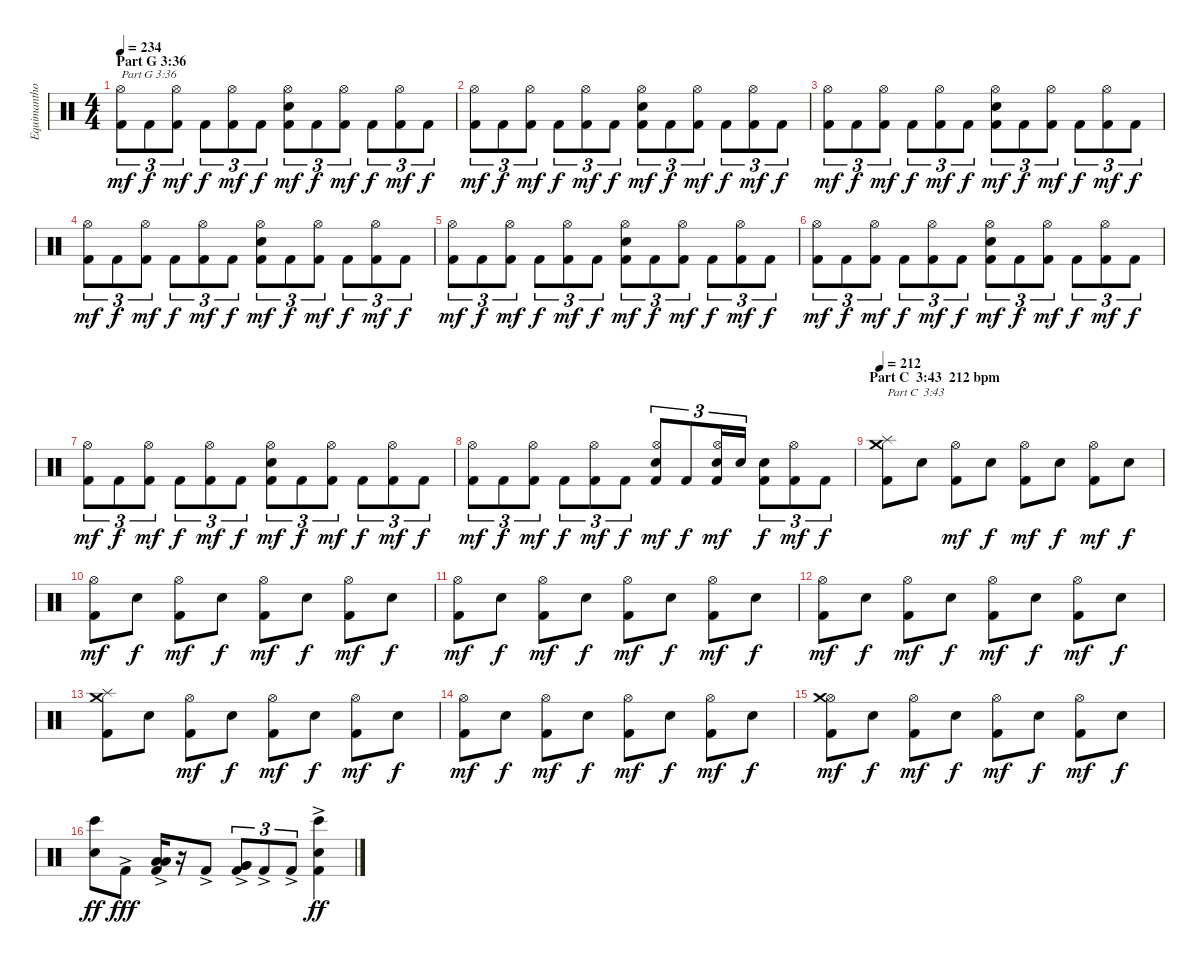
\track ("Equimanthorn" "Equimantho") {instrument percussion}
\staff {score}
\articulation defaults
\ts (4 4)
\section ("" "Part G 3:36")
\tempo 234
\clef neutral
\ks c
("Kick (hit) 2" "Hi-Hat (open)").8{tu (3 2) txt "Part G 3:36" dy mf} "Kick (hit) 2".8{tu (3 2) dy f} ("Kick (hit) 2" "Hi-Hat (open)").8{tu (3 2) dy mf} "Kick (hit) 2".8{tu (3 2) dy f} ("Kick (hit) 2" "Hi-Hat (open)").8{tu (3 2) dy mf} "Kick (hit) 2".8{tu (3 2) dy f} ("Kick (hit) 2" "Electric Snare (hit)" "Hi-Hat (open)").8{tu (3 2) dy mf} "Kick (hit) 2".8{tu (3 2) dy f} ("Kick (hit) 2" "Hi-Hat (open)").8{tu (3 2) dy mf} "Kick (hit) 2".8{tu (3 2) dy f} ("Kick (hit) 2" "Hi-Hat (open)").8{tu (3 2) dy mf} "Kick (hit) 2".8{tu (3 2) dy f} |
("Kick (hit) 2" "Hi-Hat (open)").8{tu (3 2) dy mf} "Kick (hit) 2".8{tu (3 2) dy f} ("Kick (hit) 2" "Hi-Hat (open)").8{tu (3 2) dy mf} "Kick (hit) 2".8{tu (3 2) dy f} ("Kick (hit) 2" "Hi-Hat (open)").8{tu (3 2) dy mf} "Kick (hit) 2".8{tu (3 2) dy f} ("Kick (hit) 2" "Electric Snare (hit)" "Hi-Hat (open)").8{tu (3 2) dy mf} "Kick (hit) 2".8{tu (3 2) dy f} ("Kick (hit) 2" "Hi-Hat (open)").8{tu (3 2) dy mf} "Kick (hit) 2".8{tu (3 2) dy f} ("Kick (hit) 2" "Hi-Hat (open)").8{tu (3 2) dy mf} "Kick (hit) 2".8{tu (3 2) dy f} |
("Kick (hit) 2" "Hi-Hat (open)").8{tu (3 2) dy mf} "Kick (hit) 2".8{tu (3 2) dy f} ("Kick (hit) 2" "Hi-Hat (open)").8{tu (3 2) dy mf} "Kick (hit) 2".8{tu (3 2) dy f} ("Kick (hit) 2" "Hi-Hat (open)").8{tu (3 2) dy mf} "Kick (hit) 2".8{tu (3 2) dy f} ("Kick (hit) 2" "Electric Snare (hit)" "Hi-Hat (open)").8{tu (3 2) dy mf} "Kick (hit) 2".8{tu (3 2) dy f} ("Kick (hit) 2" "Hi-Hat (open)").8{tu (3 2) dy mf} "Kick (hit) 2".8{tu (3 2) dy f} ("Kick (hit) 2" "Hi-Hat (open)").8{tu (3 2) dy mf} "Kick (hit) 2".8{tu (3 2) dy f} |
("Kick (hit) 2" "Hi-Hat (open)").8{tu (3 2) dy mf} "Kick (hit) 2".8{tu (3 2) dy f} ("Kick (hit) 2" "Hi-Hat (open)").8{tu (3 2) dy mf} "Kick (hit) 2".8{tu (3 2) dy f} ("Kick (hit) 2" "Hi-Hat (open)").8{tu (3 2) dy mf} "Kick (hit) 2".8{tu (3 2) dy f} ("Kick (hit) 2" "Electric Snare (hit)" "Hi-Hat (open)").8{tu (3 2) dy mf} "Kick (hit) 2".8{tu (3 2) dy f} ("Kick (hit) 2" "Hi-Hat (open)").8{tu (3 2) dy mf} "Kick (hit) 2".8{tu (3 2) dy f} ("Kick (hit) 2" "Hi-Hat (open)").8{tu (3 2) dy mf} "Kick (hit) 2".8{tu (3 2) dy f} |
("Kick (hit) 2" "Hi-Hat (open)").8{tu (3 2) dy mf} "Kick (hit) 2".8{tu (3 2) dy f} ("Kick (hit) 2" "Hi-Hat (open)").8{tu (3 2) dy mf} "Kick (hit) 2".8{tu (3 2) dy f} ("Kick (hit) 2" "Hi-Hat (open)").8{tu (3 2) dy mf} "Kick (hit) 2".8{tu (3 2) dy f} ("Kick (hit) 2" "Electric Snare (hit)" "Hi-Hat (open)").8{tu (3 2) dy mf} "Kick (hit) 2".8{tu (3 2) dy f} ("Kick (hit) 2" "Hi-Hat (open)").8{tu (3 2) dy mf} "Kick (hit) 2".8{tu (3 2) dy f} ("Kick (hit) 2" "Hi-Hat (open)").8{tu (3 2) dy mf} "Kick (hit) 2".8{tu (3 2) dy f} |
("Kick (hit) 2" "Hi-Hat (open)").8{tu (3 2) dy mf} "Kick (hit) 2".8{tu (3 2) dy f} ("Kick (hit) 2" "Hi-Hat (open)").8{tu (3 2) dy mf} "Kick (hit) 2".8{tu (3 2) dy f} ("Kick (hit) 2" "Hi-Hat (open)").8{tu (3 2) dy mf} "Kick (hit) 2".8{tu (3 2) dy f} ("Kick (hit) 2" "Electric Snare (hit)" "Hi-Hat (open)").8{tu (3 2) dy mf} "Kick (hit) 2".8{tu (3 2) dy f} ("Kick (hit) 2" "Hi-Hat (open)").8{tu (3 2) dy mf} "Kick (hit) 2".8{tu (3 2) dy f} ("Kick (hit) 2" "Hi-Hat (open)").8{tu (3 2) dy mf} "Kick (hit) 2".8{tu (3 2) dy f} |
("Kick (hit) 2" "Hi-Hat (open)").8{tu (3 2) dy mf} "Kick (hit) 2".8{tu (3 2) dy f} ("Kick (hit) 2" "Hi-Hat (open)").8{tu (3 2) dy mf} "Kick (hit) 2".8{tu (3 2) dy f} ("Kick (hit) 2" "Hi-Hat (open)").8{tu (3 2) dy mf} "Kick (hit) 2".8{tu (3 2) dy f} ("Kick (hit) 2" "Electric Snare (hit)" "Hi-Hat (open)").8{tu (3 2) dy mf} "Kick (hit) 2".8{tu (3 2) dy f} ("Kick (hit) 2" "Hi-Hat (open)").8{tu (3 2) dy mf} "Kick (hit) 2".8{tu (3 2) dy f} ("Kick (hit) 2" "Hi-Hat (open)").8{tu (3 2) dy mf} "Kick (hit) 2".8{tu (3 2) dy f} |
("Kick (hit) 2" "Hi-Hat (open)").8{tu (3 2) dy mf} "Kick (hit) 2".8{tu (3 2) dy f} ("Kick (hit) 2" "Hi-Hat (open)").8{tu (3 2) dy mf} "Kick (hit) 2".8{tu (3 2) dy f} ("Kick (hit) 2" "Hi-Hat (open)").8{tu (3 2) dy mf} "Kick (hit) 2".8{tu (3 2) dy f} ("Kick (hit) 2" "Electric Snare (hit)" "Hi-Hat (open)").8{tu (3 2) dy mf} "Kick (hit) 2".8{tu (3 2) dy f} ("Kick (hit) 2" "Electric Snare (hit)" "Hi-Hat (open)").16{tu (3 2) dy mf} "Electric Snare (hit)".16{tu (3 2)} ("Kick (hit) 2" "Electric Snare (hit)").8{tu (3 2) dy f} ("Kick (hit) 2" "Hi-Hat (open)").8{tu (3 2) dy mf} "Kick (hit) 2".8{tu (3 2) dy f} |
\section ("" "Part C  3:43  212 bpm")
\tempo 212
("Kick (hit) 2" "Splash (hit)" "Crash medium (hit)").8{txt "Part C  3:43"} "Electric Snare (hit)".8 ("Kick (hit) 2" "Hi-Hat (open)").8{dy mf} "Electric Snare (hit)".8{dy f} ("Kick (hit) 2" "Hi-Hat (open)").8{dy mf} "Electric Snare (hit)".8{dy f} ("Kick (hit) 2" "Hi-Hat (open)").8{dy mf} "Electric Snare (hit)".8{dy f} |
("Kick (hit) 2" "Hi-Hat (open)").8{dy mf} "Electric Snare (hit)".8{dy f} ("Kick (hit) 2" "Hi-Hat (open)").8{dy mf} "Electric Snare (hit)".8{dy f} ("Kick (hit) 2" "Hi-Hat (open)").8{dy mf} "Electric Snare (hit)".8{dy f} ("Kick (hit) 2" "Hi-Hat (open)").8{dy mf} "Electric Snare (hit)".8{dy f} |
("Kick (hit) 2" "Hi-Hat (open)").8{dy mf} "Electric Snare (hit)".8{dy f} ("Kick (hit) 2" "Hi-Hat (open)").8{dy mf} "Electric Snare (hit)".8{dy f} ("Kick (hit) 2" "Hi-Hat (open)").8{dy mf} "Electric Snare (hit)".8{dy f} ("Kick (hit) 2" "Hi-Hat (open)").8{dy mf} "Electric Snare (hit)".8{dy f} |
("Kick (hit) 2" "Hi-Hat (open)").8{dy mf} "Electric Snare (hit)".8{dy f} ("Kick (hit) 2" "Hi-Hat (open)").8{dy mf} "Electric Snare (hit)".8{dy f} ("Kick (hit) 2" "Hi-Hat (open)").8{dy mf} "Electric Snare (hit)".8{dy f} ("Kick (hit) 2" "Hi-Hat (open)").8{dy mf} "Electric Snare (hit)".8{dy f} |
("Kick (hit) 2" "Splash (hit)" "Crash medium (hit)").8 "Electric Snare (hit)".8 ("Kick (hit) 2" "Hi-Hat (open)").8{dy mf} "Electric Snare (hit)".8{dy f} ("Kick (hit) 2" "Hi-Hat (open)").8{dy mf} "Electric Snare (hit)".8{dy f} ("Kick (hit) 2" "Hi-Hat (open)").8{dy mf} "Electric Snare (hit)".8{dy f} |
("Kick (hit) 2" "Hi-Hat (open)").8{dy mf} "Electric Snare (hit)".8{dy f} ("Kick (hit) 2" "Hi-Hat (open)").8{dy mf} "Electric Snare (hit)".8{dy f} ("Kick (hit) 2" "Hi-Hat (open)").8{dy mf} "Electric Snare (hit)".8{dy f} ("Kick (hit) 2" "Hi-Hat (open)").8{dy mf} "Electric Snare (hit)".8{dy f} |
("Kick (hit) 2" "Hi-Hat (open)" "Crash medium (hit)").8{dy mf} "Electric Snare (hit)".8{dy f} ("Kick (hit) 2" "Hi-Hat (open)").8{dy mf} "Electric Snare (hit)".8{dy f} ("Kick (hit) 2" "Hi-Hat (open)").8{dy mf} "Electric Snare (hit)".8{dy f} ("Kick (hit) 2" "Hi-Hat (open)").8{dy mf} "Electric Snare (hit)".8{dy f} |
("Bongo High (hit)" "Electric Snare (hit)").8{dy ff} "Kick (hit) 2"{ac}.8{dy fff} ("Kick (hit) 2" "Low Tom (hit)"{ac} "Low Tom (hit)"{ac}).16 r.16 "Kick (hit) 2"{ac}.8 ("Kick (hit) 2" "Very Low Tom (hit)"{ac} "Very Low Tom (hit)"{ac}).8{tu (3 2)} "Kick (hit) 2"{ac}.8{tu (3 2)} "Kick (hit) 2"{ac}.8{tu (3 2)} ("Kick (hit) 2"{ac} "Bongo High (hit)" "Electric Snare (hit)").4{dy ff}
